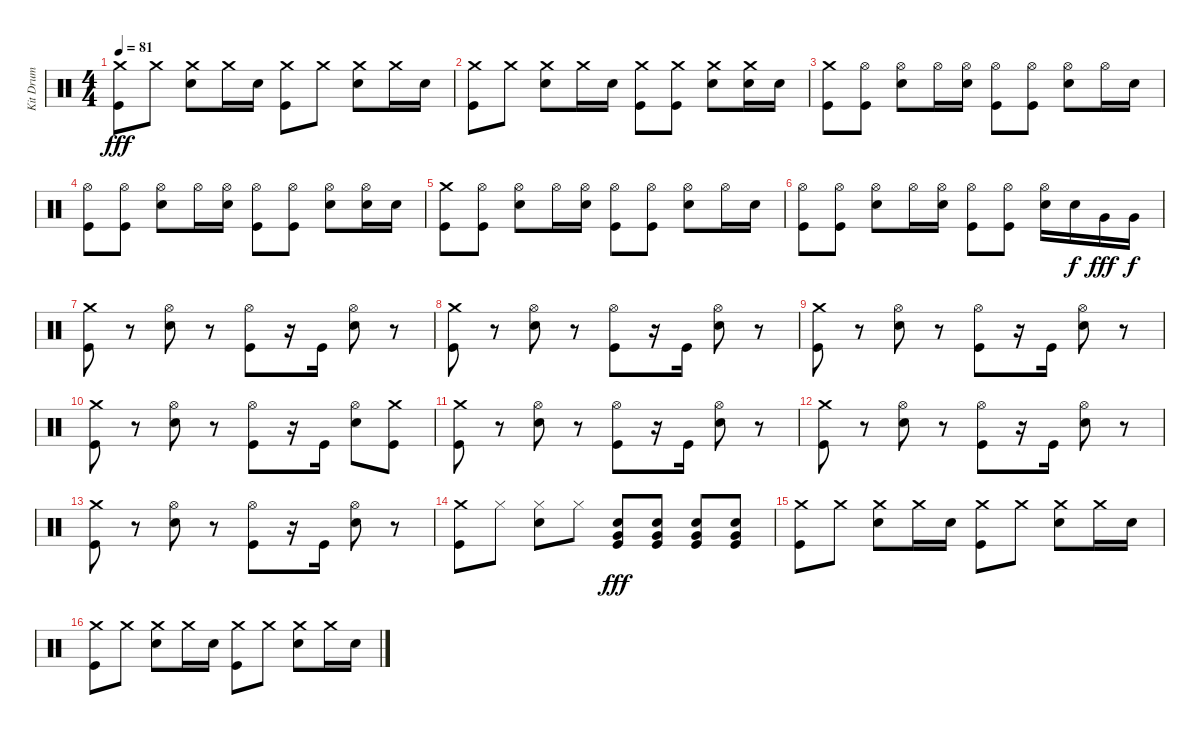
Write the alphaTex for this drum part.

\track ("Kit Drum" "Kit Drum") {instrument percussion}
\staff {score}
\articulation defaults
\ts (4 4)
\tempo 81
\clef neutral
\ks c
("Crash medium (hit)" "Kick (hit)").8{dy fff} "Crash medium (hit)".8 ("Crash medium (hit)" "Electric Snare (hit)").8 "Crash medium (hit)".16 "Electric Snare (hit)".16 ("Crash medium (hit)" "Kick (hit)").8 "Crash medium (hit)".8 ("Crash medium (hit)" "Electric Snare (hit)").8 "Crash medium (hit)".16 "Electric Snare (hit)".16 |
("Crash medium (hit)" "Kick (hit)").8 "Crash medium (hit)".8 ("Crash medium (hit)" "Electric Snare (hit)").8 "Crash medium (hit)".16 "Electric Snare (hit)".16 ("Crash medium (hit)" "Kick (hit)").8 ("Crash medium (hit)" "Kick (hit)").8 ("Crash medium (hit)" "Electric Snare (hit)").8 ("Crash medium (hit)" "Electric Snare (hit)").16 "Electric Snare (hit)".16 |
("Crash medium (hit)" "Kick (hit)").8 ("Hi-Hat (open)" "Kick (hit)").8 ("Hi-Hat (open)" "Electric Snare (hit)").8 "Hi-Hat (open)".16 ("Hi-Hat (open)" "Electric Snare (hit)").16 ("Hi-Hat (open)" "Kick (hit)").8 ("Hi-Hat (open)" "Kick (hit)").8 ("Hi-Hat (open)" "Electric Snare (hit)").8 "Hi-Hat (open)".16 "Electric Snare (hit)".16 |
("Hi-Hat (open)" "Kick (hit)").8 ("Hi-Hat (open)" "Kick (hit)").8 ("Hi-Hat (open)" "Electric Snare (hit)").8 "Hi-Hat (open)".16 ("Hi-Hat (open)" "Electric Snare (hit)").16 ("Hi-Hat (open)" "Kick (hit)").8 ("Hi-Hat (open)" "Kick (hit)").8 ("Hi-Hat (open)" "Electric Snare (hit)").8 ("Hi-Hat (open)" "Electric Snare (hit)").16 "Electric Snare (hit)".16 |
("Crash medium (hit)" "Kick (hit)").8 ("Hi-Hat (open)" "Kick (hit)").8 ("Hi-Hat (open)" "Electric Snare (hit)").8 "Hi-Hat (open)".16 ("Hi-Hat (open)" "Electric Snare (hit)").16 ("Hi-Hat (open)" "Kick (hit)").8 ("Hi-Hat (open)" "Kick (hit)").8 ("Hi-Hat (open)" "Electric Snare (hit)").8 "Hi-Hat (open)".16 "Electric Snare (hit)".16 |
("Hi-Hat (open)" "Kick (hit)").8 ("Hi-Hat (open)" "Kick (hit)").8 ("Hi-Hat (open)" "Electric Snare (hit)").8 "Hi-Hat (open)".16 ("Hi-Hat (open)" "Electric Snare (hit)").16 ("Hi-Hat (open)" "Kick (hit)").8 ("Hi-Hat (open)" "Kick (hit)").8 ("Hi-Hat (open)" "Electric Snare (hit)").16 "Electric Snare (hit)".16{dy f} "Very Low Tom (hit)".16{dy fff} "Very Low Tom (hit)".16{dy f} |
("Crash medium (hit)" "Kick (hit)").8 r.8 ("Hi-Hat (open)" "Electric Snare (hit)").8 r.8 ("Hi-Hat (open)" "Kick (hit)").8 r.16 "Kick (hit)".16 ("Hi-Hat (open)" "Electric Snare (hit)").8 r.8 |
("Crash medium (hit)" "Kick (hit)").8 r.8 ("Hi-Hat (open)" "Electric Snare (hit)").8 r.8 ("Hi-Hat (open)" "Kick (hit)").8 r.16 "Kick (hit)".16 ("Hi-Hat (open)" "Electric Snare (hit)").8 r.8 |
("Crash medium (hit)" "Kick (hit)").8 r.8 ("Hi-Hat (open)" "Electric Snare (hit)").8 r.8 ("Hi-Hat (open)" "Kick (hit)").8 r.16 "Kick (hit)".16 ("Hi-Hat (open)" "Electric Snare (hit)").8 r.8 |
("Crash medium (hit)" "Kick (hit)").8 r.8 ("Hi-Hat (open)" "Electric Snare (hit)").8 r.8 ("Hi-Hat (open)" "Kick (hit)").8 r.16 "Kick (hit)".16 ("Hi-Hat (open)" "Electric Snare (hit)").8 ("Crash medium (hit)" "Kick (hit)").8 |
("Crash medium (hit)" "Kick (hit)").8 r.8 ("Hi-Hat (open)" "Electric Snare (hit)").8 r.8 ("Hi-Hat (open)" "Kick (hit)").8 r.16 "Kick (hit)".16 ("Hi-Hat (open)" "Electric Snare (hit)").8 r.8 |
("Crash medium (hit)" "Kick (hit)").8 r.8 ("Hi-Hat (open)" "Electric Snare (hit)").8 r.8 ("Hi-Hat (open)" "Kick (hit)").8 r.16 "Kick (hit)".16 ("Hi-Hat (open)" "Electric Snare (hit)").8 r.8 |
("Crash medium (hit)" "Kick (hit)").8 r.8 ("Hi-Hat (open)" "Electric Snare (hit)").8 r.8 ("Hi-Hat (open)" "Kick (hit)").8 r.16 "Kick (hit)".16 ("Hi-Hat (open)" "Electric Snare (hit)").8 r.8 |
("Crash medium (hit)" "Kick (hit)").8 "Hi-Hat (closed)".8 ("Hi-Hat (closed)" "Electric Snare (hit)").8 "Hi-Hat (closed)".8 ("Very Low Tom (hit)" "Kick (hit)" "Electric Snare (hit)").8{dy fff} ("Very Low Tom (hit)" "Kick (hit)" "Electric Snare (hit)").8 ("Very Low Tom (hit)" "Kick (hit)" "Electric Snare (hit)").8 ("Very Low Tom (hit)" "Kick (hit)" "Electric Snare (hit)").8 |
("Crash medium (hit)" "Kick (hit)").8 "Crash medium (hit)".8 ("Crash medium (hit)" "Electric Snare (hit)").8 "Crash medium (hit)".16 "Electric Snare (hit)".16 ("Crash medium (hit)" "Kick (hit)").8 "Crash medium (hit)".8 ("Crash medium (hit)" "Electric Snare (hit)").8 "Crash medium (hit)".16 "Electric Snare (hit)".16 |
("Crash medium (hit)" "Kick (hit)").8 "Crash medium (hit)".8 ("Crash medium (hit)" "Electric Snare (hit)").8 "Crash medium (hit)".16 "Electric Snare (hit)".16 ("Crash medium (hit)" "Kick (hit)").8 "Crash medium (hit)".8 ("Crash medium (hit)" "Electric Snare (hit)").8 "Crash medium (hit)".16 "Electric Snare (hit)".16
